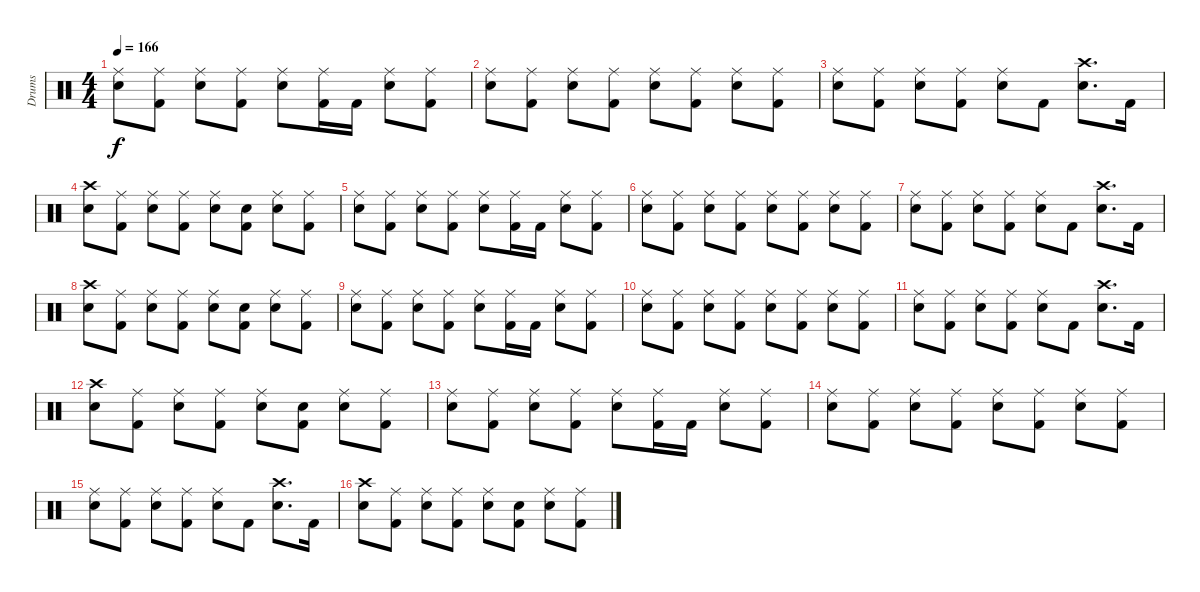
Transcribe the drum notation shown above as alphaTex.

\track ("Drums" "Drums") {instrument percussion}
\staff {score}
\articulation defaults
\ts (4 4)
\tempo 166
\clef neutral
\ks c
("Ride (middle)" "Snare (hit) 2").8{dy f} ("Ride (middle)" "Kick (hit) 2").8 ("Ride (middle)" "Snare (hit) 2").8 ("Ride (middle)" "Kick (hit) 2").8 ("Ride (middle)" "Snare (hit) 2").8 ("Ride (middle)" "Kick (hit) 2").16 "Kick (hit) 2".16 ("Ride (middle)" "Snare (hit) 2").8 ("Ride (middle)" "Kick (hit) 2").8 |
("Ride (middle)" "Snare (hit) 2").8 ("Ride (middle)" "Kick (hit) 2").8 ("Ride (middle)" "Snare (hit) 2").8 ("Ride (middle)" "Kick (hit) 2").8 ("Ride (middle)" "Snare (hit) 2").8 ("Ride (middle)" "Kick (hit) 2").8 ("Ride (middle)" "Snare (hit) 2").8 ("Ride (middle)" "Kick (hit) 2").8 |
("Ride (middle)" "Snare (hit) 2").8 ("Ride (middle)" "Kick (hit) 2").8 ("Ride (middle)" "Snare (hit) 2").8 ("Ride (middle)" "Kick (hit) 2").8 ("Ride (middle)" "Snare (hit) 2").8 "Kick (hit) 2".8 ("Crash high (hit)" "Snare (hit) 2").8{d} "Kick (hit) 2".16 |
("Crash high (hit)" "Snare (hit) 2").8 ("Ride (middle)" "Kick (hit) 2").8 ("Ride (middle)" "Snare (hit) 2").8 ("Ride (middle)" "Kick (hit) 2").8 ("Ride (middle)" "Snare (hit) 2").8 ("Snare (hit)" "Kick (hit) 2").8 ("Ride (middle)" "Snare (hit) 2").8 ("Ride (middle)" "Kick (hit) 2").8 |
("Ride (middle)" "Snare (hit) 2").8 ("Ride (middle)" "Kick (hit) 2").8 ("Ride (middle)" "Snare (hit) 2").8 ("Ride (middle)" "Kick (hit) 2").8 ("Ride (middle)" "Snare (hit) 2").8 ("Ride (middle)" "Kick (hit) 2").16 "Kick (hit) 2".16 ("Ride (middle)" "Snare (hit) 2").8 ("Ride (middle)" "Kick (hit) 2").8 |
("Ride (middle)" "Snare (hit) 2").8 ("Ride (middle)" "Kick (hit) 2").8 ("Ride (middle)" "Snare (hit) 2").8 ("Ride (middle)" "Kick (hit) 2").8 ("Ride (middle)" "Snare (hit) 2").8 ("Ride (middle)" "Kick (hit) 2").8 ("Ride (middle)" "Snare (hit) 2").8 ("Ride (middle)" "Kick (hit) 2").8 |
("Ride (middle)" "Snare (hit) 2").8 ("Ride (middle)" "Kick (hit) 2").8 ("Ride (middle)" "Snare (hit) 2").8 ("Ride (middle)" "Kick (hit) 2").8 ("Ride (middle)" "Snare (hit) 2").8 "Kick (hit) 2".8 ("Crash high (hit)" "Snare (hit) 2").8{d} "Kick (hit) 2".16 |
("Crash high (hit)" "Snare (hit) 2").8 ("Ride (middle)" "Kick (hit) 2").8 ("Ride (middle)" "Snare (hit) 2").8 ("Ride (middle)" "Kick (hit) 2").8 ("Ride (middle)" "Snare (hit) 2").8 ("Snare (hit)" "Kick (hit) 2").8 ("Ride (middle)" "Snare (hit) 2").8 ("Ride (middle)" "Kick (hit) 2").8 |
("Ride (middle)" "Snare (hit) 2").8 ("Ride (middle)" "Kick (hit) 2").8 ("Ride (middle)" "Snare (hit) 2").8 ("Ride (middle)" "Kick (hit) 2").8 ("Ride (middle)" "Snare (hit) 2").8 ("Ride (middle)" "Kick (hit) 2").16 "Kick (hit) 2".16 ("Ride (middle)" "Snare (hit) 2").8 ("Ride (middle)" "Kick (hit) 2").8 |
("Ride (middle)" "Snare (hit) 2").8 ("Ride (middle)" "Kick (hit) 2").8 ("Ride (middle)" "Snare (hit) 2").8 ("Ride (middle)" "Kick (hit) 2").8 ("Ride (middle)" "Snare (hit) 2").8 ("Ride (middle)" "Kick (hit) 2").8 ("Ride (middle)" "Snare (hit) 2").8 ("Ride (middle)" "Kick (hit) 2").8 |
("Ride (middle)" "Snare (hit) 2").8 ("Ride (middle)" "Kick (hit) 2").8 ("Ride (middle)" "Snare (hit) 2").8 ("Ride (middle)" "Kick (hit) 2").8 ("Ride (middle)" "Snare (hit) 2").8 "Kick (hit) 2".8 ("Crash high (hit)" "Snare (hit) 2").8{d} "Kick (hit) 2".16 |
("Crash high (hit)" "Snare (hit) 2").8 ("Ride (middle)" "Kick (hit) 2").8 ("Ride (middle)" "Snare (hit) 2").8 ("Ride (middle)" "Kick (hit) 2").8 ("Ride (middle)" "Snare (hit) 2").8 ("Snare (hit)" "Kick (hit) 2").8 ("Ride (middle)" "Snare (hit) 2").8 ("Ride (middle)" "Kick (hit) 2").8 |
("Ride (middle)" "Snare (hit) 2").8 ("Ride (middle)" "Kick (hit) 2").8 ("Ride (middle)" "Snare (hit) 2").8 ("Ride (middle)" "Kick (hit) 2").8 ("Ride (middle)" "Snare (hit) 2").8 ("Ride (middle)" "Kick (hit) 2").16 "Kick (hit) 2".16 ("Ride (middle)" "Snare (hit) 2").8 ("Ride (middle)" "Kick (hit) 2").8 |
("Ride (middle)" "Snare (hit) 2").8 ("Ride (middle)" "Kick (hit) 2").8 ("Ride (middle)" "Snare (hit) 2").8 ("Ride (middle)" "Kick (hit) 2").8 ("Ride (middle)" "Snare (hit) 2").8 ("Ride (middle)" "Kick (hit) 2").8 ("Ride (middle)" "Snare (hit) 2").8 ("Ride (middle)" "Kick (hit) 2").8 |
("Ride (middle)" "Snare (hit) 2").8 ("Ride (middle)" "Kick (hit) 2").8 ("Ride (middle)" "Snare (hit) 2").8 ("Ride (middle)" "Kick (hit) 2").8 ("Ride (middle)" "Snare (hit) 2").8 "Kick (hit) 2".8 ("Crash high (hit)" "Snare (hit) 2").8{d} "Kick (hit) 2".16 |
("Crash high (hit)" "Snare (hit) 2").8 ("Ride (middle)" "Kick (hit) 2").8 ("Ride (middle)" "Snare (hit) 2").8 ("Ride (middle)" "Kick (hit) 2").8 ("Ride (middle)" "Snare (hit) 2").8 ("Snare (hit)" "Kick (hit) 2").8 ("Ride (middle)" "Snare (hit) 2").8 ("Ride (middle)" "Kick (hit) 2").8
